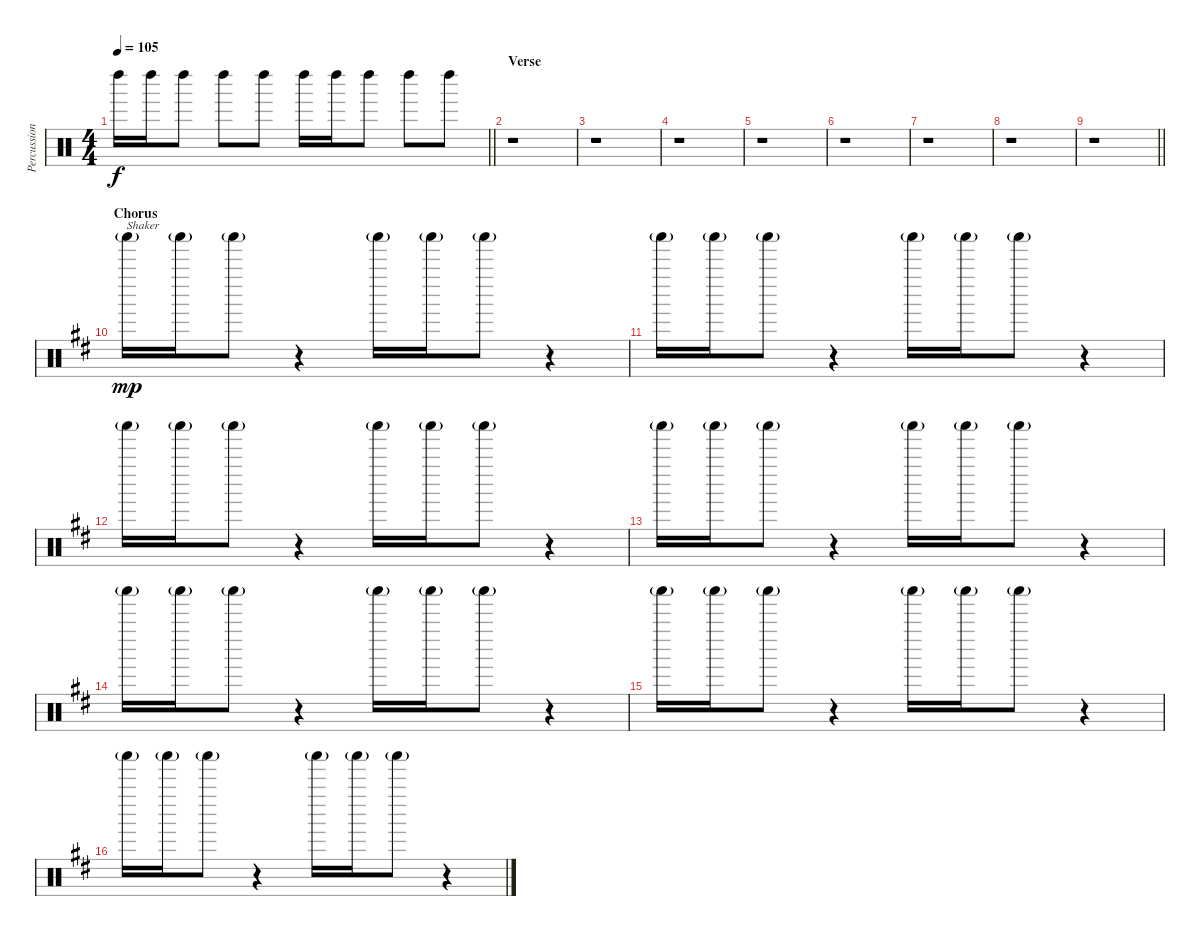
\track ("Percussion" "Percussion") {instrument percussion}
\staff {score}
\articulation defaults
\ts (4 4)
\tempo 105
\clef neutral
\barLineRight lightlight
\ks aminor "Left Maraca (hit)".16{dy f} "Left Maraca (hit)".16 "Left Maraca (hit)".8 "Left Maraca (hit)".8 "Left Maraca (hit)".8 "Left Maraca (hit)".16 "Left Maraca (hit)".16 "Left Maraca (hit)".8 "Left Maraca (hit)".8 "Left Maraca (hit)".8
|
\section ("" "Verse")
r.1 |
r.1 |
r.1 |
r.1 |
r.1 |
r.1 |
r.1 |
\barLineRight lightlight
r.1 |
\section ("" "Chorus")
\ks bminor "Shaker (hit)"{g}.16{txt "Shaker" dy mp} "Shaker (hit)"{g}.16 "Shaker (hit)"{g}.8
r.4 "Shaker (hit)"{g}.16 "Shaker (hit)"{g}.16 "Shaker (hit)"{g}.8 r.4 |
"Shaker (hit)"{g}.16 "Shaker (hit)"{g}.16 "Shaker (hit)"{g}.8 r.4 "Shaker (hit)"{g}.16 "Shaker (hit)"{g}.16 "Shaker (hit)"{g}.8 r.4 |
"Shaker (hit)"{g}.16 "Shaker (hit)"{g}.16 "Shaker (hit)"{g}.8 r.4 "Shaker (hit)"{g}.16 "Shaker (hit)"{g}.16 "Shaker (hit)"{g}.8 r.4 |
"Shaker (hit)"{g}.16 "Shaker (hit)"{g}.16 "Shaker (hit)"{g}.8 r.4 "Shaker (hit)"{g}.16 "Shaker (hit)"{g}.16 "Shaker (hit)"{g}.8 r.4 |
"Shaker (hit)"{g}.16 "Shaker (hit)"{g}.16 "Shaker (hit)"{g}.8 r.4 "Shaker (hit)"{g}.16 "Shaker (hit)"{g}.16 "Shaker (hit)"{g}.8 r.4 |
"Shaker (hit)"{g}.16 "Shaker (hit)"{g}.16 "Shaker (hit)"{g}.8 r.4 "Shaker (hit)"{g}.16 "Shaker (hit)"{g}.16 "Shaker (hit)"{g}.8 r.4 |
"Shaker (hit)"{g}.16 "Shaker (hit)"{g}.16 "Shaker (hit)"{g}.8 r.4 "Shaker (hit)"{g}.16 "Shaker (hit)"{g}.16 "Shaker (hit)"{g}.8 r.4
